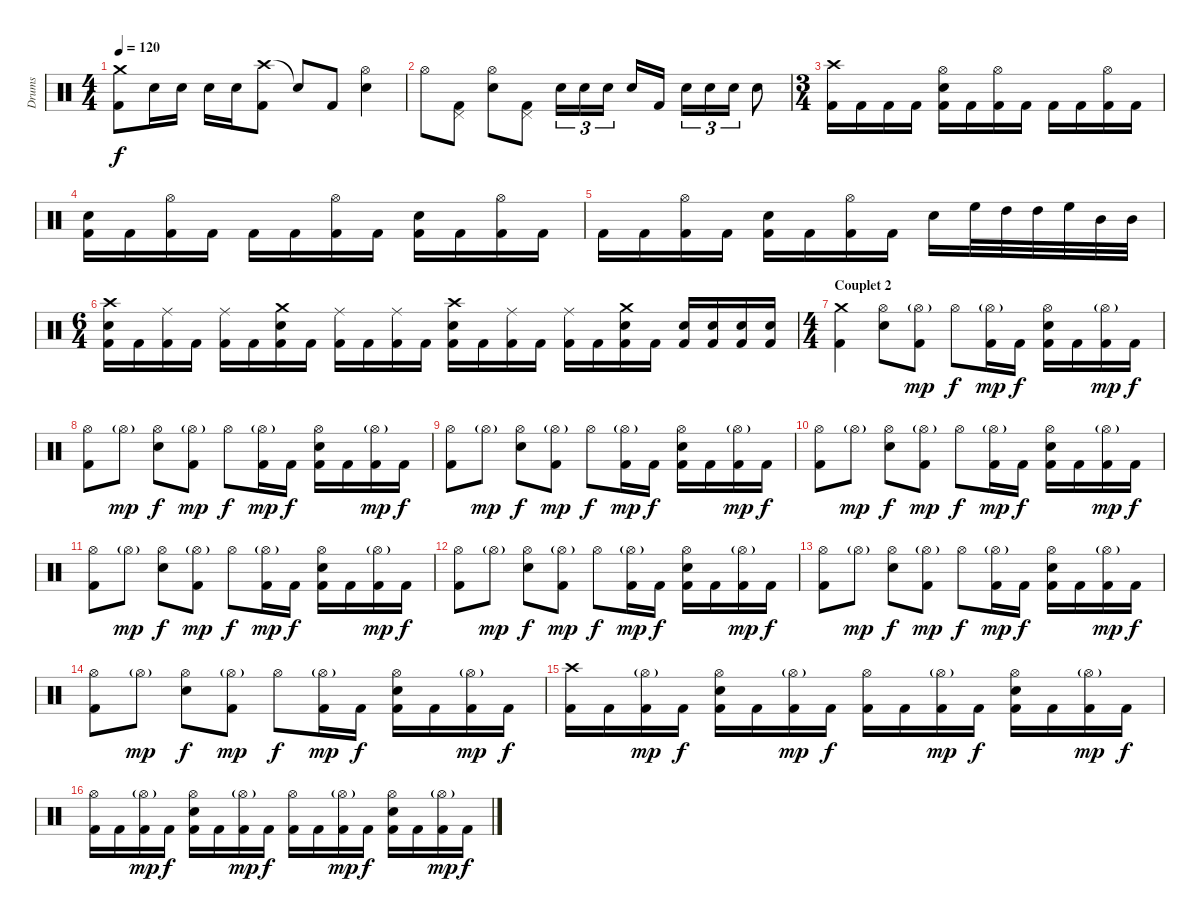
\track ("Drums" "Drums") {instrument percussion}
\staff {score}
\articulation defaults
\ts (4 4)
\tempo 120
\clef neutral
\ks c
("Crash medium (hit)" "Kick (hit) 2").8{dy f} "Snare (hit) 2".16 "Snare (hit) 2".16 "Snare (hit) 2".16 "Snare (hit) 2".16 ("Crash high (hit)" "Kick (hit) 2").8 "Snare (hit)"{t}.8 "Kick (hit) 2".8 ("Hi-Hat (open)" "Snare (hit) 2").4 |
"Hi-Hat (open)".8 ("Pedal Hi-Hat (hit)" "Kick (hit) 2").8 ("Hi-Hat (open)" "Snare (hit) 2").8 ("Pedal Hi-Hat (hit)" "Kick (hit) 2").8 "Snare (hit) 2".16{tu (3 2)} "Snare (hit) 2".16{tu (3 2)} "Snare (hit) 2".16{tu (3 2)} "Snare (hit) 2".16 "Kick (hit) 2".16 "Snare (hit) 2".16{tu (3 2)} "Snare (hit) 2".16{tu (3 2)} "Snare (hit) 2".16{tu (3 2)} "Snare (hit) 2".8 |
\ts (3 4)
("Crash high (hit)" "Kick (hit) 2").16 "Kick (hit) 2".16 "Kick (hit) 2".16 "Kick (hit) 2".16 ("Hi-Hat (open)" "Snare (hit) 2" "Kick (hit) 2").16 "Kick (hit) 2".16 ("Hi-Hat (open)" "Kick (hit) 2").16 "Kick (hit) 2".16 "Kick (hit) 2".16 "Kick (hit) 2".16 ("Hi-Hat (open)" "Kick (hit) 2").16 "Kick (hit) 2".16 |
("Snare (hit) 2" "Kick (hit) 2").16 "Kick (hit) 2".16 ("Hi-Hat (open)" "Kick (hit) 2").16 "Kick (hit) 2".16 "Kick (hit) 2".16 "Kick (hit) 2".16 ("Hi-Hat (open)" "Kick (hit) 2").16 "Kick (hit) 2".16 ("Snare (hit) 2" "Kick (hit) 2").16 "Kick (hit) 2".16 ("Hi-Hat (open)" "Kick (hit) 2").16 "Kick (hit) 2".16 |
"Kick (hit) 2".16 "Kick (hit) 2".16 ("Hi-Hat (open)" "Kick (hit) 2").16 "Kick (hit) 2".16 ("Snare (hit) 2" "Kick (hit) 2").16 "Kick (hit) 2".16 ("Hi-Hat (open)" "Kick (hit) 2").16 "Kick (hit) 2".16 "Snare (hit) 2".16 "High Floor Tom (hit)".32 "High Tom (hit)".32 "High Tom (hit)".32 "High Floor Tom (hit)".32 "Mid Tom (hit)".32 "Mid Tom (hit)".32 |
\ts (6 4)
("Crash high (hit)" "Snare (hit) 2" "Kick (hit) 2").16 "Kick (hit) 2".16 ("Ride (middle)" "Kick (hit) 2").16 "Kick (hit) 2".16 ("Ride (middle)" "Kick (hit) 2").16 "Kick (hit) 2".16 ("Crash medium (hit)" "Snare (hit) 2" "Kick (hit) 2").16 "Kick (hit) 2".16 ("Ride (middle)" "Kick (hit) 2").16 "Kick (hit) 2".16 ("Ride (middle)" "Kick (hit) 2").16 "Kick (hit) 2".16 ("Crash high (hit)" "Snare (hit) 2" "Kick (hit) 2").16 "Kick (hit) 2".16 ("Ride (middle)" "Kick (hit) 2").16 "Kick (hit) 2".16 ("Ride (middle)" "Kick (hit) 2").16 "Kick (hit) 2".16 ("Crash medium (hit)" "Snare (hit) 2" "Kick (hit) 2").16 "Kick (hit) 2".16 ("Snare (hit) 2" "Kick (hit) 2").16 ("Snare (hit) 2" "Kick (hit) 2").16 ("Snare (hit) 2" "Kick (hit) 2").16 ("Snare (hit) 2" "Kick (hit) 2").16 |
\ts (4 4)
\section ("" "Couplet 2")
("Crash medium (hit)" "Kick (hit) 2").4 ("Hi-Hat (open)" "Snare (hit) 2").8 ("Hi-Hat (open)"{g} "Kick (hit) 2").8{dy mp} "Hi-Hat (open)".8{dy f} ("Hi-Hat (open)"{g} "Kick (hit) 2").16{dy mp} "Kick (hit) 2".16{dy f} ("Hi-Hat (open)" "Snare (hit) 2" "Kick (hit) 2").16 "Kick (hit) 2".16 ("Hi-Hat (open)"{g} "Kick (hit) 2").16{dy mp} "Kick (hit) 2".16{dy f} |
("Hi-Hat (open)" "Kick (hit) 2").8 "Hi-Hat (open)"{g}.8{dy mp} ("Hi-Hat (open)" "Snare (hit) 2").8{dy f} ("Hi-Hat (open)"{g} "Kick (hit) 2").8{dy mp} "Hi-Hat (open)".8{dy f} ("Hi-Hat (open)"{g} "Kick (hit) 2").16{dy mp} "Kick (hit) 2".16{dy f} ("Hi-Hat (open)" "Snare (hit) 2" "Kick (hit) 2").16 "Kick (hit) 2".16 ("Hi-Hat (open)"{g} "Kick (hit) 2").16{dy mp} "Kick (hit) 2".16{dy f} |
("Hi-Hat (open)" "Kick (hit) 2").8 "Hi-Hat (open)"{g}.8{dy mp} ("Hi-Hat (open)" "Snare (hit) 2").8{dy f} ("Hi-Hat (open)"{g} "Kick (hit) 2").8{dy mp} "Hi-Hat (open)".8{dy f} ("Hi-Hat (open)"{g} "Kick (hit) 2").16{dy mp} "Kick (hit) 2".16{dy f} ("Hi-Hat (open)" "Snare (hit) 2" "Kick (hit) 2").16 "Kick (hit) 2".16 ("Hi-Hat (open)"{g} "Kick (hit) 2").16{dy mp} "Kick (hit) 2".16{dy f} |
("Hi-Hat (open)" "Kick (hit) 2").8 "Hi-Hat (open)"{g}.8{dy mp} ("Hi-Hat (open)" "Snare (hit) 2").8{dy f} ("Hi-Hat (open)"{g} "Kick (hit) 2").8{dy mp} "Hi-Hat (open)".8{dy f} ("Hi-Hat (open)"{g} "Kick (hit) 2").16{dy mp} "Kick (hit) 2".16{dy f} ("Hi-Hat (open)" "Snare (hit) 2" "Kick (hit) 2").16 "Kick (hit) 2".16 ("Hi-Hat (open)"{g} "Kick (hit) 2").16{dy mp} "Kick (hit) 2".16{dy f} |
("Hi-Hat (open)" "Kick (hit) 2").8 "Hi-Hat (open)"{g}.8{dy mp} ("Hi-Hat (open)" "Snare (hit) 2").8{dy f} ("Hi-Hat (open)"{g} "Kick (hit) 2").8{dy mp} "Hi-Hat (open)".8{dy f} ("Hi-Hat (open)"{g} "Kick (hit) 2").16{dy mp} "Kick (hit) 2".16{dy f} ("Hi-Hat (open)" "Snare (hit) 2" "Kick (hit) 2").16 "Kick (hit) 2".16 ("Hi-Hat (open)"{g} "Kick (hit) 2").16{dy mp} "Kick (hit) 2".16{dy f} |
("Hi-Hat (open)" "Kick (hit) 2").8 "Hi-Hat (open)"{g}.8{dy mp} ("Hi-Hat (open)" "Snare (hit) 2").8{dy f} ("Hi-Hat (open)"{g} "Kick (hit) 2").8{dy mp} "Hi-Hat (open)".8{dy f} ("Hi-Hat (open)"{g} "Kick (hit) 2").16{dy mp} "Kick (hit) 2".16{dy f} ("Hi-Hat (open)" "Snare (hit) 2" "Kick (hit) 2").16 "Kick (hit) 2".16 ("Hi-Hat (open)"{g} "Kick (hit) 2").16{dy mp} "Kick (hit) 2".16{dy f} |
("Hi-Hat (open)" "Kick (hit) 2").8 "Hi-Hat (open)"{g}.8{dy mp} ("Hi-Hat (open)" "Snare (hit) 2").8{dy f} ("Hi-Hat (open)"{g} "Kick (hit) 2").8{dy mp} "Hi-Hat (open)".8{dy f} ("Hi-Hat (open)"{g} "Kick (hit) 2").16{dy mp} "Kick (hit) 2".16{dy f} ("Hi-Hat (open)" "Snare (hit) 2" "Kick (hit) 2").16 "Kick (hit) 2".16 ("Hi-Hat (open)"{g} "Kick (hit) 2").16{dy mp} "Kick (hit) 2".16{dy f} |
("Hi-Hat (open)" "Kick (hit) 2").8 "Hi-Hat (open)"{g}.8{dy mp} ("Hi-Hat (open)" "Snare (hit) 2").8{dy f} ("Hi-Hat (open)"{g} "Kick (hit) 2").8{dy mp} "Hi-Hat (open)".8{dy f} ("Hi-Hat (open)"{g} "Kick (hit) 2").16{dy mp} "Kick (hit) 2".16{dy f} ("Hi-Hat (open)" "Snare (hit) 2" "Kick (hit) 2").16 "Kick (hit) 2".16 ("Hi-Hat (open)"{g} "Kick (hit) 2").16{dy mp} "Kick (hit) 2".16{dy f} |
("Crash high (hit)" "Kick (hit) 2").16 "Kick (hit) 2".16 ("Hi-Hat (open)"{g} "Kick (hit) 2").16{dy mp} "Kick (hit) 2".16{dy f} ("Hi-Hat (open)" "Snare (hit) 2" "Kick (hit) 2").16 "Kick (hit) 2".16 ("Hi-Hat (open)"{g} "Kick (hit) 2").16{dy mp} "Kick (hit) 2".16{dy f} ("Hi-Hat (open)" "Kick (hit) 2").16 "Kick (hit) 2".16 ("Hi-Hat (open)"{g} "Kick (hit) 2").16{dy mp} "Kick (hit) 2".16{dy f} ("Hi-Hat (open)" "Snare (hit) 2" "Kick (hit) 2").16 "Kick (hit) 2".16 ("Hi-Hat (open)"{g} "Kick (hit) 2").16{dy mp} "Kick (hit) 2".16{dy f} |
("Hi-Hat (open)" "Kick (hit) 2").16 "Kick (hit) 2".16 ("Hi-Hat (open)"{g} "Kick (hit) 2").16{dy mp} "Kick (hit) 2".16{dy f} ("Hi-Hat (open)" "Snare (hit) 2" "Kick (hit) 2").16 "Kick (hit) 2".16 ("Hi-Hat (open)"{g} "Kick (hit) 2").16{dy mp} "Kick (hit) 2".16{dy f} ("Hi-Hat (open)" "Kick (hit) 2").16 "Kick (hit) 2".16 ("Hi-Hat (open)"{g} "Kick (hit) 2").16{dy mp} "Kick (hit) 2".16{dy f} ("Hi-Hat (open)" "Snare (hit) 2" "Kick (hit) 2").16 "Kick (hit) 2".16 ("Hi-Hat (open)"{g} "Kick (hit) 2").16{dy mp} "Kick (hit) 2".16{dy f}
